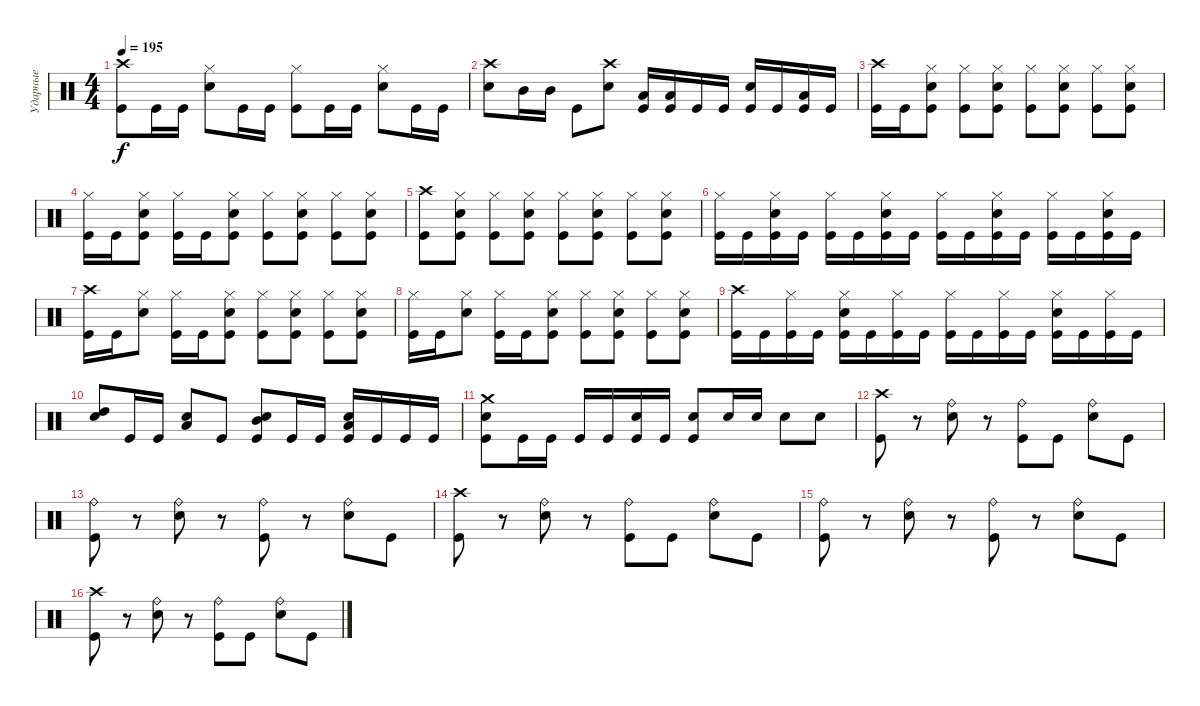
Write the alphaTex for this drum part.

\track ("Ударные" "Ударные") {instrument percussion}
\staff {score}
\articulation defaults
\ts (4 4)
\tempo 195
\clef neutral
\ks c
("Crash high (hit)" "Kick (hit)").8{dy f} "Kick (hit)".16 "Kick (hit)".16 ("Hi-Hat (closed)" "Electric Snare (hit)").8 "Kick (hit)".16 "Kick (hit)".16 ("Hi-Hat (closed)" "Kick (hit)").8 "Kick (hit)".16 "Kick (hit)".16 ("Hi-Hat (closed)" "Electric Snare (hit)").8 "Kick (hit)".16 "Kick (hit)".16 |
("Crash high (hit)" "Electric Snare (hit)").8 "Mid Tom (hit)".16 "Mid Tom (hit)".16 "Kick (hit)".8 ("Crash high (hit)" "Electric Snare (hit)").8 ("Low Tom (hit)" "Kick (hit)").16 ("Low Tom (hit)" "Kick (hit)").16 "Kick (hit)".16 "Kick (hit)".16 ("Electric Snare (hit)" "Kick (hit)").16 "Kick (hit)".16 ("Low Tom (hit)" "Kick (hit)").16 "Kick (hit)".16 |
("Crash high (hit)" "Kick (hit)").16 "Kick (hit)".16 ("Hi-Hat (closed)" "Electric Snare (hit)" "Kick (hit)").8 ("Hi-Hat (closed)" "Kick (hit)").8 ("Hi-Hat (closed)" "Electric Snare (hit)" "Kick (hit)").8 ("Hi-Hat (closed)" "Kick (hit)").8 ("Hi-Hat (closed)" "Electric Snare (hit)" "Kick (hit)").8 ("Hi-Hat (closed)" "Kick (hit)").8 ("Hi-Hat (closed)" "Electric Snare (hit)" "Kick (hit)").8 |
("Hi-Hat (closed)" "Kick (hit)").16 "Kick (hit)".16 ("Hi-Hat (closed)" "Electric Snare (hit)" "Kick (hit)").8 ("Hi-Hat (closed)" "Kick (hit)").16 "Kick (hit)".16 ("Hi-Hat (closed)" "Electric Snare (hit)" "Kick (hit)").8 ("Hi-Hat (closed)" "Kick (hit)").8 ("Hi-Hat (closed)" "Electric Snare (hit)" "Kick (hit)").8 ("Hi-Hat (closed)" "Kick (hit)").8 ("Hi-Hat (closed)" "Electric Snare (hit)" "Kick (hit)").8 |
("Crash high (hit)" "Kick (hit)").8 ("Hi-Hat (closed)" "Electric Snare (hit)" "Kick (hit)").8 ("Hi-Hat (closed)" "Kick (hit)").8 ("Hi-Hat (closed)" "Electric Snare (hit)" "Kick (hit)").8 ("Hi-Hat (closed)" "Kick (hit)").8 ("Hi-Hat (closed)" "Electric Snare (hit)" "Kick (hit)").8 ("Hi-Hat (closed)" "Kick (hit)").8 ("Hi-Hat (closed)" "Electric Snare (hit)" "Kick (hit)").8 |
("Hi-Hat (closed)" "Kick (hit)").16 "Kick (hit)".16 ("Hi-Hat (closed)" "Electric Snare (hit)" "Kick (hit)").16 "Kick (hit)".16 ("Hi-Hat (closed)" "Kick (hit)").16 "Kick (hit)".16 ("Hi-Hat (closed)" "Electric Snare (hit)" "Kick (hit)").16 "Kick (hit)".16 ("Hi-Hat (closed)" "Kick (hit)").16 "Kick (hit)".16 ("Hi-Hat (closed)" "Electric Snare (hit)" "Kick (hit)").16 "Kick (hit)".16 ("Hi-Hat (closed)" "Kick (hit)").16 "Kick (hit)".16 ("Hi-Hat (closed)" "Electric Snare (hit)" "Kick (hit)").16 "Kick (hit)".16 |
("Crash high (hit)" "Kick (hit)").16 "Kick (hit)".16 ("Hi-Hat (closed)" "Electric Snare (hit)").8 ("Hi-Hat (closed)" "Kick (hit)").16 "Kick (hit)".16 ("Hi-Hat (closed)" "Electric Snare (hit)" "Kick (hit)").8 ("Hi-Hat (closed)" "Kick (hit)").8 ("Hi-Hat (closed)" "Electric Snare (hit)" "Kick (hit)").8 ("Hi-Hat (closed)" "Kick (hit)").8 ("Hi-Hat (closed)" "Electric Snare (hit)" "Kick (hit)").8 |
("Hi-Hat (closed)" "Kick (hit)").16 "Kick (hit)".16 ("Hi-Hat (closed)" "Electric Snare (hit)").8 ("Hi-Hat (closed)" "Kick (hit)").16 "Kick (hit)".16 ("Hi-Hat (closed)" "Electric Snare (hit)" "Kick (hit)").8 ("Hi-Hat (closed)" "Kick (hit)").8 ("Hi-Hat (closed)" "Electric Snare (hit)" "Kick (hit)").8 ("Hi-Hat (closed)" "Kick (hit)").8 ("Hi-Hat (closed)" "Electric Snare (hit)" "Kick (hit)").8 |
("Crash high (hit)" "Kick (hit)").16 "Kick (hit)".16 ("Hi-Hat (closed)" "Kick (hit)").16 "Kick (hit)".16 ("Hi-Hat (closed)" "Electric Snare (hit)" "Kick (hit)").16 "Kick (hit)".16 ("Hi-Hat (closed)" "Kick (hit)").16 "Kick (hit)".16 ("Hi-Hat (closed)" "Kick (hit)").16 "Kick (hit)".16 ("Hi-Hat (closed)" "Kick (hit)").16 "Kick (hit)".16 ("Hi-Hat (closed)" "Electric Snare (hit)" "Kick (hit)").16 "Kick (hit)".16 ("Hi-Hat (closed)" "Kick (hit)").16 "Kick (hit)".16 |
("High Tom (hit)" "Electric Snare (hit)").8 "Kick (hit)".16 "Kick (hit)".16 ("Low Tom (hit)" "Electric Snare (hit)").8 "Kick (hit)".8 ("Mid Tom (hit)" "Electric Snare (hit)" "Kick (hit)").8 "Kick (hit)".16 "Kick (hit)".16 ("Low Tom (hit)" "Electric Snare (hit)" "Kick (hit)").16 "Kick (hit)".16 "Kick (hit)".16 "Kick (hit)".16 |
("Crash medium (hit)" "Electric Snare (hit)" "Kick (hit)").8 "Kick (hit)".16 "Kick (hit)".16 "Kick (hit)".16 "Kick (hit)".16 ("Electric Snare (hit)" "Kick (hit)").16 "Kick (hit)".16 ("Electric Snare (hit)" "Kick (hit)").8 "Electric Snare (hit)".16 "Electric Snare (hit)".16 "Electric Snare (hit)".8 "Electric Snare (hit)".8 |
("Crash high (hit)" "Kick (hit)").8 r.8 ("Ride (bell)" "Electric Snare (hit)").8 r.8 ("Ride (bell)" "Kick (hit)").8 "Kick (hit)".8 ("Ride (bell)" "Electric Snare (hit)").8 "Kick (hit)".8 |
("Ride (bell)" "Kick (hit)").8 r.8 ("Ride (bell)" "Electric Snare (hit)").8 r.8 ("Ride (bell)" "Kick (hit)").8 r.8 ("Ride (bell)" "Electric Snare (hit)").8 "Kick (hit)".8 |
("Crash high (hit)" "Kick (hit)").8 r.8 ("Ride (bell)" "Electric Snare (hit)").8 r.8 ("Ride (bell)" "Kick (hit)").8 "Kick (hit)".8 ("Ride (bell)" "Electric Snare (hit)").8 "Kick (hit)".8 |
("Ride (bell)" "Kick (hit)").8 r.8 ("Ride (bell)" "Electric Snare (hit)").8 r.8 ("Ride (bell)" "Kick (hit)").8 r.8 ("Ride (bell)" "Electric Snare (hit)").8 "Kick (hit)".8 |
("Crash high (hit)" "Kick (hit)").8 r.8 ("Ride (bell)" "Electric Snare (hit)").8 r.8 ("Ride (bell)" "Kick (hit)").8 "Kick (hit)".8 ("Ride (bell)" "Electric Snare (hit)").8 "Kick (hit)".8
